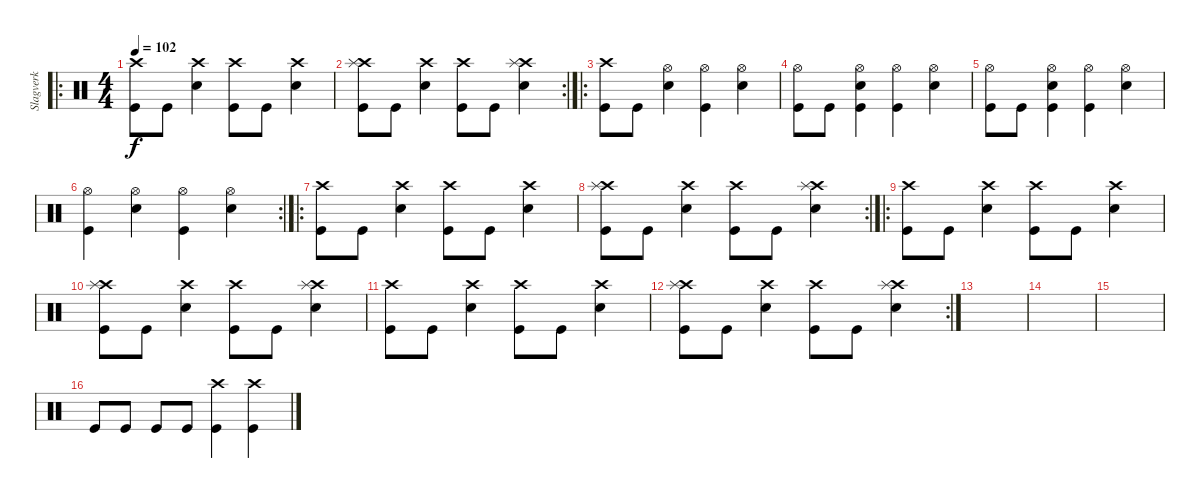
\track ("Slagverk" "Slagverk") {instrument percussion}
\staff {score}
\articulation defaults
\ro
\ts (4 4)
\tempo 102
\clef neutral
\ks c
("Crash high (hit)" "Kick (hit)").8{dy f} "Kick (hit)".8 ("Crash high (hit)" "Snare (hit) 2").4 ("Crash high (hit)" "Kick (hit)").8 "Kick (hit)".8 ("Crash high (hit)" "Snare (hit) 2").4 |
\rc 2
("Crash high (hit)" "Splash (hit)" "Kick (hit)").8 "Kick (hit)".8 ("Crash high (hit)" "Snare (hit) 2").4 ("Crash high (hit)" "Kick (hit)").8 "Kick (hit)".8 ("Crash high (hit)" "Splash (hit)" "Snare (hit) 2").4 |
\ro
("Crash high (hit)" "Kick (hit)").8 "Kick (hit)".8 ("Hi-Hat (open)" "Snare (hit) 2").4 ("Hi-Hat (open)" "Kick (hit)").4 ("Hi-Hat (open)" "Snare (hit) 2").4 |
("Hi-Hat (open)" "Kick (hit)").8 "Kick (hit)".8 ("Hi-Hat (open)" "Snare (hit) 2" "Kick (hit)").4 ("Hi-Hat (open)" "Kick (hit)").4 ("Hi-Hat (open)" "Snare (hit) 2").4 |
("Hi-Hat (open)" "Kick (hit)").8 "Kick (hit)".8 ("Hi-Hat (open)" "Snare (hit) 2" "Kick (hit)").4 ("Hi-Hat (open)" "Kick (hit)").4 ("Hi-Hat (open)" "Snare (hit) 2").4 |
\rc 2
("Hi-Hat (open)" "Kick (hit)").4 ("Hi-Hat (open)" "Snare (hit) 2").4 ("Hi-Hat (open)" "Kick (hit)").4 ("Hi-Hat (open)" "Snare (hit) 2").4 |
\ro
("Crash high (hit)" "Kick (hit)").8 "Kick (hit)".8 ("Crash high (hit)" "Snare (hit) 2").4 ("Crash high (hit)" "Kick (hit)").8 "Kick (hit)".8 ("Crash high (hit)" "Snare (hit) 2").4 |
\rc 2
("Crash high (hit)" "Splash (hit)" "Kick (hit)").8 "Kick (hit)".8 ("Crash high (hit)" "Snare (hit) 2").4 ("Crash high (hit)" "Kick (hit)").8 "Kick (hit)".8 ("Crash high (hit)" "Splash (hit)" "Snare (hit) 2").4 |
\ro
("Crash high (hit)" "Kick (hit)").8 "Kick (hit)".8 ("Crash high (hit)" "Snare (hit) 2").4 ("Crash high (hit)" "Kick (hit)").8 "Kick (hit)".8 ("Crash high (hit)" "Snare (hit) 2").4 |
("Crash high (hit)" "Splash (hit)" "Kick (hit)").8 "Kick (hit)".8 ("Crash high (hit)" "Snare (hit) 2").4 ("Crash high (hit)" "Kick (hit)").8 "Kick (hit)".8 ("Crash high (hit)" "Splash (hit)" "Snare (hit) 2").4 |
("Crash high (hit)" "Kick (hit)").8 "Kick (hit)".8 ("Crash high (hit)" "Snare (hit) 2").4 ("Crash high (hit)" "Kick (hit)").8 "Kick (hit)".8 ("Crash high (hit)" "Snare (hit) 2").4 |
\rc 2
("Crash high (hit)" "Splash (hit)" "Kick (hit)").8 "Kick (hit)".8 ("Crash high (hit)" "Snare (hit) 2").4 ("Crash high (hit)" "Kick (hit)").8 "Kick (hit)".8 ("Crash high (hit)" "Splash (hit)" "Snare (hit) 2").4 |
|
|
|
"Kick (hit)".8 "Kick (hit)".8 "Kick (hit)".8 "Kick (hit)".8 ("Crash high (hit)" "Kick (hit)").4 ("Crash high (hit)" "Kick (hit)").4
